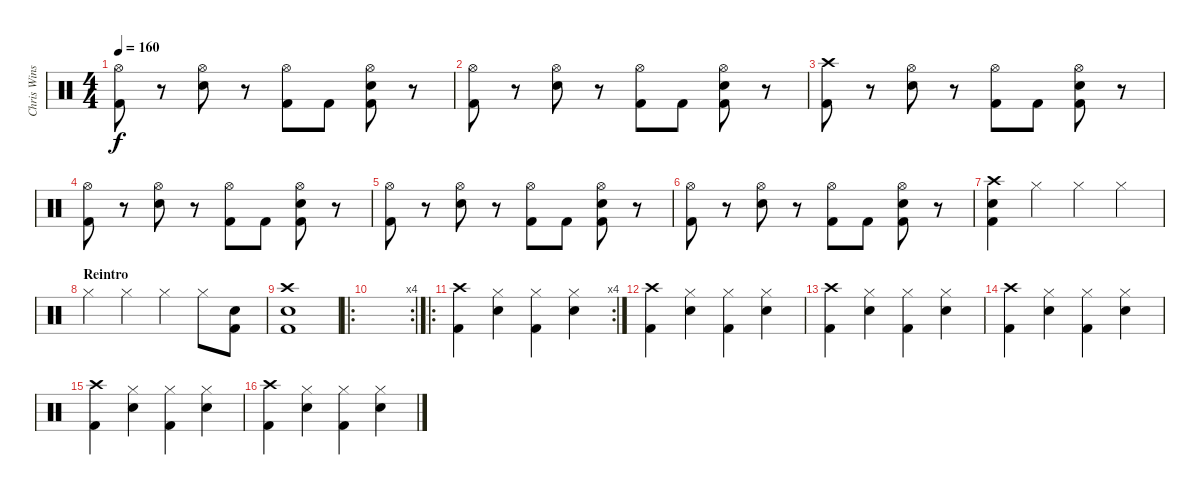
\track ("Chris Winship (Drums)" "Chris Wins") {instrument percussion}
\staff {score}
\articulation defaults
\ts (4 4)
\tempo 160
\clef neutral
\ks c
("Hi-Hat (open)" "Kick (hit) 2").8{dy f} r.8 ("Hi-Hat (open)" "Snare (hit) 2").8 r.8 ("Hi-Hat (open)" "Kick (hit) 2").8 "Kick (hit) 2".8 ("Hi-Hat (open)" "Kick (hit) 2" "Snare (hit) 2").8 r.8 |
("Hi-Hat (open)" "Kick (hit) 2").8 r.8 ("Hi-Hat (open)" "Snare (hit) 2").8 r.8 ("Hi-Hat (open)" "Kick (hit) 2").8 "Kick (hit) 2".8 ("Hi-Hat (open)" "Kick (hit) 2" "Snare (hit) 2").8 r.8 |
("Crash high (hit)" "Kick (hit) 2").8 r.8 ("Hi-Hat (open)" "Snare (hit) 2").8 r.8 ("Hi-Hat (open)" "Kick (hit) 2").8 "Kick (hit) 2".8 ("Hi-Hat (open)" "Kick (hit) 2" "Snare (hit) 2").8 r.8 |
("Hi-Hat (open)" "Kick (hit) 2").8 r.8 ("Hi-Hat (open)" "Snare (hit) 2").8 r.8 ("Hi-Hat (open)" "Kick (hit) 2").8 "Kick (hit) 2".8 ("Hi-Hat (open)" "Kick (hit) 2" "Snare (hit) 2").8 r.8 |
("Hi-Hat (open)" "Kick (hit) 2").8 r.8 ("Hi-Hat (open)" "Snare (hit) 2").8 r.8 ("Hi-Hat (open)" "Kick (hit) 2").8 "Kick (hit) 2".8 ("Hi-Hat (open)" "Kick (hit) 2" "Snare (hit) 2").8 r.8 |
("Hi-Hat (open)" "Kick (hit) 2").8 r.8 ("Hi-Hat (open)" "Snare (hit) 2").8 r.8 ("Hi-Hat (open)" "Kick (hit) 2").8 "Kick (hit) 2".8 ("Hi-Hat (open)" "Kick (hit) 2" "Snare (hit) 2").8 r.8 |
("Kick (hit) 2" "Snare (hit) 2" "Crash high (hit)").4 "Hi-Hat (closed)".4 "Hi-Hat (closed)".4 "Hi-Hat (closed)".4 |
\section ("" "Reintro")
"Hi-Hat (closed)".4 "Hi-Hat (closed)".4 "Hi-Hat (closed)".4 "Hi-Hat (closed)".8 ("Snare (hit) 2" "Kick (hit) 2").8 |
("Crash high (hit)" "Snare (hit) 2" "Kick (hit) 2").1 |
\ro
\rc 4
|
\ro
\rc 4
("Crash high (hit)" "Kick (hit) 2").4 ("Hi-Hat (closed)" "Snare (hit) 2").4 ("Hi-Hat (closed)" "Kick (hit) 2").4 ("Hi-Hat (closed)" "Snare (hit) 2").4 |
("Crash high (hit)" "Kick (hit) 2").4 ("Hi-Hat (closed)" "Snare (hit) 2").4 ("Hi-Hat (closed)" "Kick (hit) 2").4 ("Hi-Hat (closed)" "Snare (hit) 2").4 |
("Crash high (hit)" "Kick (hit) 2").4 ("Hi-Hat (closed)" "Snare (hit) 2").4 ("Hi-Hat (closed)" "Kick (hit) 2").4 ("Hi-Hat (closed)" "Snare (hit) 2").4 |
("Crash high (hit)" "Kick (hit) 2").4 ("Hi-Hat (closed)" "Snare (hit) 2").4 ("Hi-Hat (closed)" "Kick (hit) 2").4 ("Hi-Hat (closed)" "Snare (hit) 2").4 |
("Crash high (hit)" "Kick (hit) 2").4 ("Hi-Hat (closed)" "Snare (hit) 2").4 ("Hi-Hat (closed)" "Kick (hit) 2").4 ("Hi-Hat (closed)" "Snare (hit) 2").4 |
("Crash high (hit)" "Kick (hit) 2").4 ("Hi-Hat (closed)" "Snare (hit) 2").4 ("Hi-Hat (closed)" "Kick (hit) 2").4 ("Hi-Hat (closed)" "Snare (hit) 2").4
